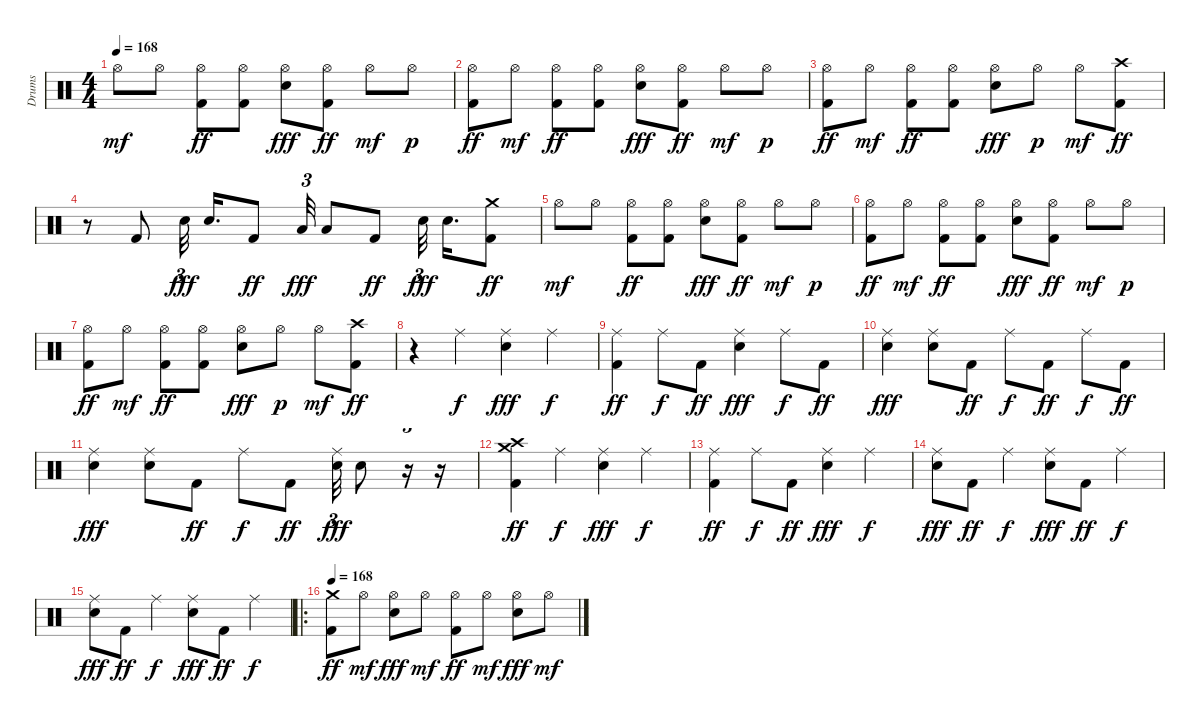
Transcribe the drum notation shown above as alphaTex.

\track ("Drums" "Drums") {instrument percussion}
\staff {score}
\articulation defaults
\ts (4 4)
\tempo 168
\clef neutral
\ks c "Hi-Hat (open)".8{dy mf} "Hi-Hat (open)".8
("Hi-Hat (open)" "Kick (hit) 2").8{dy ff} ("Hi-Hat (open)" "Kick (hit) 2").8 ("Hi-Hat (open)" "Snare (hit) 2").8{dy fff} ("Hi-Hat (open)" "Kick (hit) 2").8{dy ff} "Hi-Hat (open)".8{dy mf} "Hi-Hat (open)".8{dy p} |
("Hi-Hat (open)" "Kick (hit) 2").8{dy ff} "Hi-Hat (open)".8{dy mf} ("Hi-Hat (open)" "Kick (hit) 2").8{dy ff} ("Hi-Hat (open)" "Kick (hit) 2").8 ("Hi-Hat (open)" "Snare (hit) 2").8{dy fff} ("Hi-Hat (open)" "Kick (hit) 2").8{dy ff} "Hi-Hat (open)".8{dy mf} "Hi-Hat (open)".8{dy p} |
("Hi-Hat (open)" "Kick (hit) 2").8{dy ff} "Hi-Hat (open)".8{dy mf} ("Hi-Hat (open)" "Kick (hit) 2").8{dy ff} ("Hi-Hat (open)" "Kick (hit) 2").8 ("Hi-Hat (open)" "Snare (hit) 2").8{dy fff} "Hi-Hat (open)".8{dy p} "Hi-Hat (open)".8{dy mf} ("Kick (hit) 2" "Crash high (hit)").8{dy ff} |
r.8 "Kick (hit) 2".8 "Snare (hit) 2".32{tu (3 2) dy fff beam splitsecondary} "Snare (hit) 2".16{d} "Kick (hit) 2".8{dy ff} "Low Tom (hit)".32{tu (3 2) dy fff} "Low Tom (hit)".8 "Kick (hit) 2".8{dy ff} "Snare (hit) 2".32{tu (3 2) dy fff beam splitsecondary} "Snare (hit) 2".16{d} ("Kick (hit) 2" "Crash medium (hit)").8{dy ff} |
"Hi-Hat (open)".8{dy mf} "Hi-Hat (open)".8 ("Hi-Hat (open)" "Kick (hit) 2").8{dy ff} ("Hi-Hat (open)" "Kick (hit) 2").8 ("Hi-Hat (open)" "Snare (hit) 2").8{dy fff} ("Hi-Hat (open)" "Kick (hit) 2").8{dy ff} "Hi-Hat (open)".8{dy mf} "Hi-Hat (open)".8{dy p} |
("Hi-Hat (open)" "Kick (hit) 2").8{dy ff} "Hi-Hat (open)".8{dy mf} ("Hi-Hat (open)" "Kick (hit) 2").8{dy ff} ("Hi-Hat (open)" "Kick (hit) 2").8 ("Hi-Hat (open)" "Snare (hit) 2").8{dy fff} ("Hi-Hat (open)" "Kick (hit) 2").8{dy ff} "Hi-Hat (open)".8{dy mf} "Hi-Hat (open)".8{dy p} |
("Hi-Hat (open)" "Kick (hit) 2").8{dy ff} "Hi-Hat (open)".8{dy mf} ("Hi-Hat (open)" "Kick (hit) 2").8{dy ff} ("Hi-Hat (open)" "Kick (hit) 2").8 ("Hi-Hat (open)" "Snare (hit) 2").8{dy fff} "Hi-Hat (open)".8{dy p} "Hi-Hat (open)".8{dy mf} ("Kick (hit) 2" "Crash high (hit)").8{dy ff} |
r.4 "Ride (middle)".4{dy f} ("Snare (hit) 2" "Ride (middle)").4{dy fff} "Ride (middle)".4{dy f} |
("Kick (hit) 2" "Ride (middle)").4{dy ff} "Ride (middle)".8{dy f} "Kick (hit) 2".8{dy ff} ("Snare (hit) 2" "Ride (middle)").4{dy fff} "Ride (middle)".8{dy f} "Kick (hit) 2".8{dy ff} |
("Snare (hit) 2" "Ride (middle)").4{dy fff} ("Snare (hit) 2" "Ride (middle)").8 "Kick (hit) 2".8{dy ff} "Ride (middle)".8{dy f} "Kick (hit) 2".8{dy ff} "Ride (middle)".8{dy f} "Kick (hit) 2".8{dy ff} |
("Snare (hit) 2" "Ride (middle)").4{dy fff} ("Snare (hit) 2" "Ride (middle)").8 "Kick (hit) 2".8{dy ff} "Ride (middle)".8{dy f} "Kick (hit) 2".8{dy ff} ("Snare (hit) 2" "Ride (middle)").32{tu (3 2) dy fff} "Snare (hit) 2".8 r.16{tu (3 2)} r.16 |
("Kick (hit) 2" "Crash medium (hit)" "Crash high (hit)").4{dy ff} "Ride (middle)".4{dy f} ("Snare (hit) 2" "Ride (middle)").4{dy fff} "Ride (middle)".4{dy f} |
("Kick (hit) 2" "Ride (middle)").4{dy ff} "Ride (middle)".8{dy f} "Kick (hit) 2".8{dy ff} ("Snare (hit) 2" "Ride (middle)").4{dy fff} "Ride (middle)".4{dy f} |
("Snare (hit) 2" "Ride (middle)").8{dy fff} "Kick (hit) 2".8{dy ff} "Ride (middle)".4{dy f} ("Snare (hit) 2" "Ride (middle)").8{dy fff} "Kick (hit) 2".8{dy ff} "Ride (middle)".4{dy f} |
("Snare (hit) 2" "Ride (middle)").8{dy fff} "Kick (hit) 2".8{dy ff} "Ride (middle)".4{dy f} ("Snare (hit) 2" "Ride (middle)").8{dy fff} "Kick (hit) 2".8{dy ff} "Ride (middle)".4{dy f} |
\ro
\tempo 168
("Kick (hit) 2" "Crash medium (hit)").8{dy ff} "Hi-Hat (open)".8{dy mf} ("Hi-Hat (open)" "Snare (hit) 2").8{dy fff} "Hi-Hat (open)".8{dy mf} ("Hi-Hat (open)" "Kick (hit) 2").8{dy ff} "Hi-Hat (open)".8{dy mf} ("Hi-Hat (open)" "Snare (hit) 2").8{dy fff} "Hi-Hat (open)".8{dy mf}
